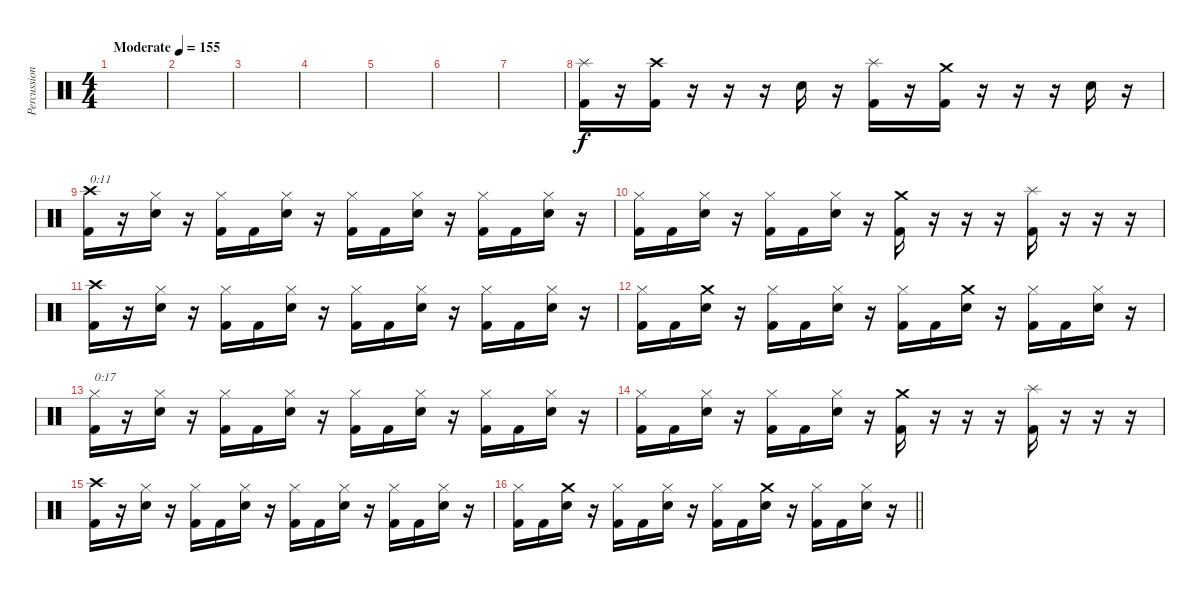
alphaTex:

\track ("Percussion" "Percussion") {instrument percussion}
\staff {score}
\articulation defaults
\ts (4 4)
\tempo (155 "Moderate")
\clef neutral
\ks c
|
|
|
|
|
|
|
("Splash (hit)" "Kick (hit) 2").16 r.16 ("Crash high (hit)" "Kick (hit) 2").16 r.16 r.16 r.16 "Electric Snare (hit)".16 r.16 ("Splash (hit)" "Kick (hit) 2").16 r.16 ("Crash medium (hit)" "Kick (hit) 2").16 r.16 r.16 r.16 "Electric Snare (hit)".16 r.16 |
("Crash high (hit)" "Kick (hit) 2").16{txt "0:11"} r.16 ("Hi-Hat (closed)" "Electric Snare (hit)").16 r.16 ("Hi-Hat (closed)" "Kick (hit) 2").16 "Kick (hit) 2".16 ("Hi-Hat (closed)" "Electric Snare (hit)").16 r.16 ("Hi-Hat (closed)" "Kick (hit) 2").16 "Kick (hit) 2".16 ("Hi-Hat (closed)" "Electric Snare (hit)").16 r.16 ("Hi-Hat (closed)" "Kick (hit) 2").16 "Kick (hit) 2".16 ("Hi-Hat (closed)" "Electric Snare (hit)").16 r.16 |
("Hi-Hat (closed)" "Kick (hit) 2").16 "Kick (hit) 2".16 ("Hi-Hat (closed)" "Electric Snare (hit)").16 r.16 ("Hi-Hat (closed)" "Kick (hit) 2").16 "Kick (hit) 2".16 ("Hi-Hat (closed)" "Electric Snare (hit)").16 r.16 ("Crash medium (hit)" "Kick (hit) 2").16 r.16 r.16 r.16 ("Splash (hit)" "Kick (hit) 2").16 r.16 r.16 r.16 |
("Crash high (hit)" "Kick (hit) 2").16 r.16 ("Hi-Hat (closed)" "Electric Snare (hit)").16 r.16 ("Hi-Hat (closed)" "Kick (hit) 2").16 "Kick (hit) 2".16 ("Hi-Hat (closed)" "Electric Snare (hit)").16 r.16 ("Hi-Hat (closed)" "Kick (hit) 2").16 "Kick (hit) 2".16 ("Hi-Hat (closed)" "Electric Snare (hit)").16 r.16 ("Hi-Hat (closed)" "Kick (hit) 2").16 "Kick (hit) 2".16 ("Hi-Hat (closed)" "Electric Snare (hit)").16 r.16 |
("Hi-Hat (closed)" "Kick (hit) 2").16 "Kick (hit) 2".16 ("Crash medium (hit)" "Electric Snare (hit)").16 r.16 ("Hi-Hat (closed)" "Kick (hit) 2").16 "Kick (hit) 2".16 ("Hi-Hat (closed)" "Electric Snare (hit)").16 r.16 ("Hi-Hat (closed)" "Kick (hit) 2").16 "Kick (hit) 2".16 ("Crash medium (hit)" "Electric Snare (hit)").16 r.16 ("Hi-Hat (closed)" "Kick (hit) 2").16 "Kick (hit) 2".16 ("Hi-Hat (closed)" "Electric Snare (hit)").16 r.16 |
("Hi-Hat (closed)" "Kick (hit) 2").16{txt "0:17"} r.16 ("Hi-Hat (closed)" "Electric Snare (hit)").16 r.16 ("Hi-Hat (closed)" "Kick (hit) 2").16 "Kick (hit) 2".16 ("Hi-Hat (closed)" "Electric Snare (hit)").16 r.16 ("Hi-Hat (closed)" "Kick (hit) 2").16 "Kick (hit) 2".16 ("Hi-Hat (closed)" "Electric Snare (hit)").16 r.16 ("Hi-Hat (closed)" "Kick (hit) 2").16 "Kick (hit) 2".16 ("Hi-Hat (closed)" "Electric Snare (hit)").16 r.16 |
("Hi-Hat (closed)" "Kick (hit) 2").16 "Kick (hit) 2".16 ("Hi-Hat (closed)" "Electric Snare (hit)").16 r.16 ("Hi-Hat (closed)" "Kick (hit) 2").16 "Kick (hit) 2".16 ("Hi-Hat (closed)" "Electric Snare (hit)").16 r.16 ("Crash medium (hit)" "Kick (hit) 2").16 r.16 r.16 r.16 ("Splash (hit)" "Kick (hit) 2").16 r.16 r.16 r.16 |
("Crash high (hit)" "Kick (hit) 2").16 r.16 ("Hi-Hat (closed)" "Electric Snare (hit)").16 r.16 ("Hi-Hat (closed)" "Kick (hit) 2").16 "Kick (hit) 2".16 ("Hi-Hat (closed)" "Electric Snare (hit)").16 r.16 ("Hi-Hat (closed)" "Kick (hit) 2").16 "Kick (hit) 2".16 ("Hi-Hat (closed)" "Electric Snare (hit)").16 r.16 ("Hi-Hat (closed)" "Kick (hit) 2").16 "Kick (hit) 2".16 ("Hi-Hat (closed)" "Electric Snare (hit)").16 r.16 |
\barLineRight lightlight
("Hi-Hat (closed)" "Kick (hit) 2").16 "Kick (hit) 2".16 ("Crash medium (hit)" "Electric Snare (hit)").16 r.16 ("Hi-Hat (closed)" "Kick (hit) 2").16 "Kick (hit) 2".16 ("Hi-Hat (closed)" "Electric Snare (hit)").16 r.16 ("Hi-Hat (closed)" "Kick (hit) 2").16 "Kick (hit) 2".16 ("Crash medium (hit)" "Electric Snare (hit)").16 r.16 ("Hi-Hat (closed)" "Kick (hit) 2").16 "Kick (hit) 2".16 ("Hi-Hat (closed)" "Electric Snare (hit)").16 r.16
